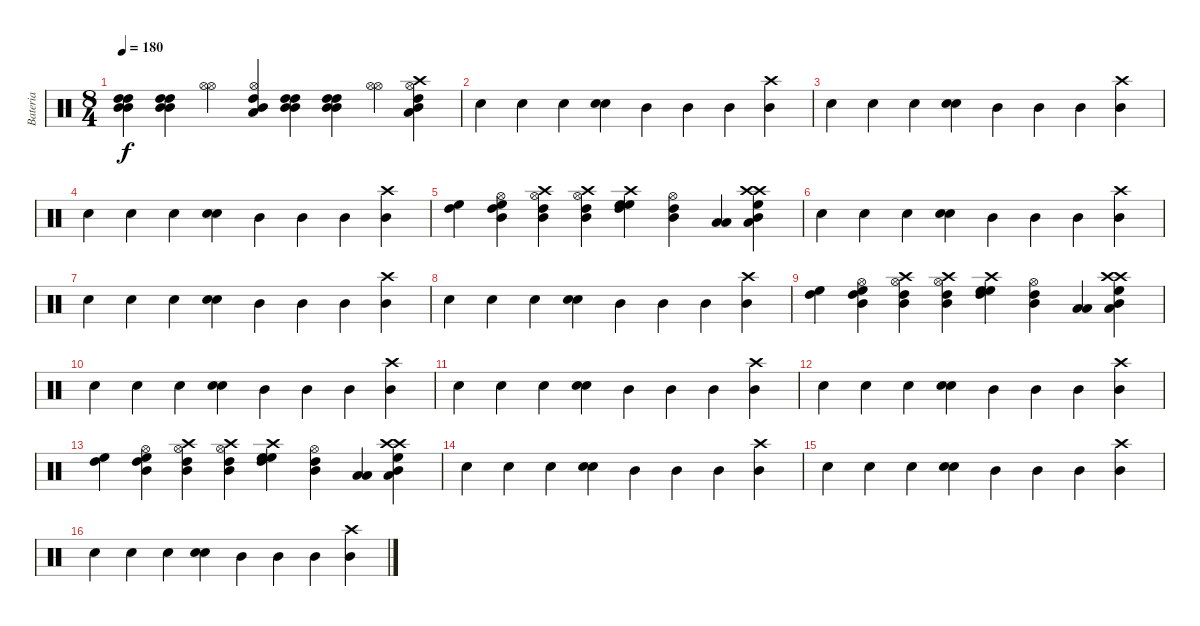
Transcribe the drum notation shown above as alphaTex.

\track ("Bateria" "Bateria") {instrument percussion}
\staff {score}
\articulation defaults
\ts (8 4)
\tempo 180
\clef neutral
\ks c
("Mid Tom (hit)" "High Tom (hit)" "Mid Tom (hit)" "High Tom (hit)").4{dy f} ("Mid Tom (hit)" "High Tom (hit)" "Mid Tom (hit)" "High Tom (hit)").4 ("Hi-Hat (open)" "Hi-Hat (open)").4 ("Low Tom (hit)" "Mid Tom (hit)" "High Tom (hit)" "Hi-Hat (open)").4 ("Mid Tom (hit)" "High Tom (hit)" "Mid Tom (hit)" "High Tom (hit)").4 ("Mid Tom (hit)" "High Tom (hit)" "Mid Tom (hit)" "High Tom (hit)").4 ("Hi-Hat (open)" "Hi-Hat (open)").4 ("Low Tom (hit)" "Mid Tom (hit)" "High Tom (hit)" "Hi-Hat (open)" "Crash high (hit)").4 |
"Snare (hit) 2".4 "Snare (hit) 2".4 "Snare (hit) 2".4 ("Snare (hit) 2" "Snare (hit) 2").4 "Mid Tom (hit)".4 "Mid Tom (hit)".4 "Mid Tom (hit)".4 ("Mid Tom (hit)" "Crash high (hit)").4 |
"Snare (hit) 2".4 "Snare (hit) 2".4 "Snare (hit) 2".4 ("Snare (hit) 2" "Snare (hit) 2").4 "Mid Tom (hit)".4 "Mid Tom (hit)".4 "Mid Tom (hit)".4 ("Mid Tom (hit)" "Crash high (hit)").4 |
"Snare (hit) 2".4 "Snare (hit) 2".4 "Snare (hit) 2".4 ("Snare (hit) 2" "Snare (hit) 2").4 "Mid Tom (hit)".4 "Mid Tom (hit)".4 "Mid Tom (hit)".4 ("Mid Tom (hit)" "Crash high (hit)").4 |
("High Tom (hit)" "High Floor Tom (hit)").4 ("High Tom (hit)" "Mid Tom (hit)" "Hi-Hat (open)" "High Floor Tom (hit)").4 ("High Tom (hit)" "Crash high (hit)" "Mid Tom (hit)" "Hi-Hat (open)").4 ("Crash high (hit)" "High Tom (hit)" "Mid Tom (hit)" "Hi-Hat (open)").4 ("High Tom (hit)" "Crash high (hit)" "High Floor Tom (hit)" "High Floor Tom (hit)").4 ("Mid Tom (hit)" "High Tom (hit)" "Hi-Hat (open)").4 ("Low Tom (hit)" "Low Tom (hit)").4 ("Crash high (hit)" "Mid Tom (hit)" "High Floor Tom (hit)" "Crash high (hit)" "Low Tom (hit)").4 |
"Snare (hit) 2".4 "Snare (hit) 2".4 "Snare (hit) 2".4 ("Snare (hit) 2" "Snare (hit) 2").4 "Mid Tom (hit)".4 "Mid Tom (hit)".4 "Mid Tom (hit)".4 ("Mid Tom (hit)" "Crash high (hit)").4 |
"Snare (hit) 2".4 "Snare (hit) 2".4 "Snare (hit) 2".4 ("Snare (hit) 2" "Snare (hit) 2").4 "Mid Tom (hit)".4 "Mid Tom (hit)".4 "Mid Tom (hit)".4 ("Mid Tom (hit)" "Crash high (hit)").4 |
"Snare (hit) 2".4 "Snare (hit) 2".4 "Snare (hit) 2".4 ("Snare (hit) 2" "Snare (hit) 2").4 "Mid Tom (hit)".4 "Mid Tom (hit)".4 "Mid Tom (hit)".4 ("Mid Tom (hit)" "Crash high (hit)").4 |
("High Tom (hit)" "High Floor Tom (hit)").4 ("High Tom (hit)" "Mid Tom (hit)" "Hi-Hat (open)" "High Floor Tom (hit)").4 ("High Tom (hit)" "Crash high (hit)" "Mid Tom (hit)" "Hi-Hat (open)").4 ("Crash high (hit)" "High Tom (hit)" "Mid Tom (hit)" "Hi-Hat (open)").4 ("High Tom (hit)" "Crash high (hit)" "High Floor Tom (hit)" "High Floor Tom (hit)").4 ("Mid Tom (hit)" "High Tom (hit)" "Hi-Hat (open)").4 ("Low Tom (hit)" "Low Tom (hit)").4 ("Crash high (hit)" "Mid Tom (hit)" "High Floor Tom (hit)" "Crash high (hit)" "Low Tom (hit)").4 |
"Snare (hit) 2".4 "Snare (hit) 2".4 "Snare (hit) 2".4 ("Snare (hit) 2" "Snare (hit) 2").4 "Mid Tom (hit)".4 "Mid Tom (hit)".4 "Mid Tom (hit)".4 ("Mid Tom (hit)" "Crash high (hit)").4 |
"Snare (hit) 2".4 "Snare (hit) 2".4 "Snare (hit) 2".4 ("Snare (hit) 2" "Snare (hit) 2").4 "Mid Tom (hit)".4 "Mid Tom (hit)".4 "Mid Tom (hit)".4 ("Mid Tom (hit)" "Crash high (hit)").4 |
"Snare (hit) 2".4 "Snare (hit) 2".4 "Snare (hit) 2".4 ("Snare (hit) 2" "Snare (hit) 2").4 "Mid Tom (hit)".4 "Mid Tom (hit)".4 "Mid Tom (hit)".4 ("Mid Tom (hit)" "Crash high (hit)").4 |
("High Tom (hit)" "High Floor Tom (hit)").4 ("High Tom (hit)" "Mid Tom (hit)" "Hi-Hat (open)" "High Floor Tom (hit)").4 ("High Tom (hit)" "Crash high (hit)" "Mid Tom (hit)" "Hi-Hat (open)").4 ("Crash high (hit)" "High Tom (hit)" "Mid Tom (hit)" "Hi-Hat (open)").4 ("High Tom (hit)" "Crash high (hit)" "High Floor Tom (hit)" "High Floor Tom (hit)").4 ("Mid Tom (hit)" "High Tom (hit)" "Hi-Hat (open)").4 ("Low Tom (hit)" "Low Tom (hit)").4 ("Crash high (hit)" "Mid Tom (hit)" "High Floor Tom (hit)" "Crash high (hit)" "Low Tom (hit)").4 |
"Snare (hit) 2".4 "Snare (hit) 2".4 "Snare (hit) 2".4 ("Snare (hit) 2" "Snare (hit) 2").4 "Mid Tom (hit)".4 "Mid Tom (hit)".4 "Mid Tom (hit)".4 ("Mid Tom (hit)" "Crash high (hit)").4 |
"Snare (hit) 2".4 "Snare (hit) 2".4 "Snare (hit) 2".4 ("Snare (hit) 2" "Snare (hit) 2").4 "Mid Tom (hit)".4 "Mid Tom (hit)".4 "Mid Tom (hit)".4 ("Mid Tom (hit)" "Crash high (hit)").4 |
"Snare (hit) 2".4 "Snare (hit) 2".4 "Snare (hit) 2".4 ("Snare (hit) 2" "Snare (hit) 2").4 "Mid Tom (hit)".4 "Mid Tom (hit)".4 "Mid Tom (hit)".4 ("Mid Tom (hit)" "Crash high (hit)").4
